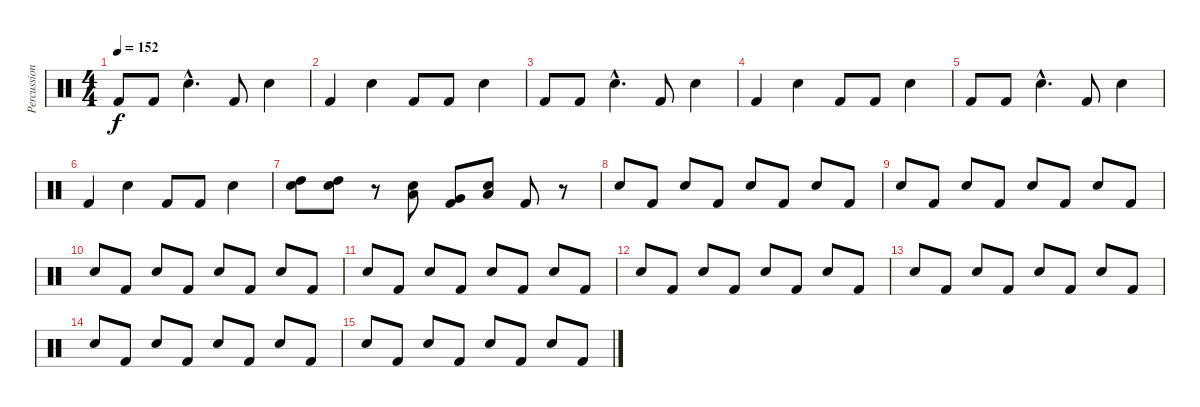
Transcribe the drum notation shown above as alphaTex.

\track ("Percussion" "Percussion") {instrument percussion}
\staff {score}
\articulation defaults
\ts (4 4)
\tempo 152
\clef neutral
\ks c "Kick (hit) 2".8{dy f} "Kick (hit) 2".8 "Snare (hit) 2"{hac}.4{d} "Kick (hit) 2".8 "Snare (hit) 2".4
|
"Kick (hit) 2".4 "Snare (hit) 2".4 "Kick (hit) 2".8 "Kick (hit) 2".8 "Snare (hit) 2".4 |
"Kick (hit) 2".8 "Kick (hit) 2".8 "Snare (hit) 2"{hac}.4{d} "Kick (hit) 2".8 "Snare (hit) 2".4 |
"Kick (hit) 2".4 "Snare (hit) 2".4 "Kick (hit) 2".8 "Kick (hit) 2".8 "Snare (hit) 2".4 |
"Kick (hit) 2".8 "Kick (hit) 2".8 "Snare (hit) 2"{hac}.4{d} "Kick (hit) 2".8 "Snare (hit) 2".4 |
"Kick (hit) 2".4 "Snare (hit) 2".4 "Kick (hit) 2".8 "Kick (hit) 2".8 "Snare (hit) 2".4 |
("Snare (hit) 2" "High Tom (hit)").8 ("Snare (hit) 2" "High Tom (hit)").8 r.8 ("Snare (hit) 2" "Low Tom (hit)").8 ("Kick (hit) 2" "Very Low Tom (hit)").8 ("Snare (hit) 2" "Low Tom (hit)").8 "Kick (hit) 2".8 r.8 |
"Snare (hit) 2".8 "Kick (hit) 2".8 "Snare (hit) 2".8 "Kick (hit) 2".8 "Snare (hit) 2".8 "Kick (hit) 2".8 "Snare (hit) 2".8 "Kick (hit) 2".8 |
"Snare (hit) 2".8 "Kick (hit) 2".8 "Snare (hit) 2".8 "Kick (hit) 2".8 "Snare (hit) 2".8 "Kick (hit) 2".8 "Snare (hit) 2".8 "Kick (hit) 2".8 |
"Snare (hit) 2".8 "Kick (hit) 2".8 "Snare (hit) 2".8 "Kick (hit) 2".8 "Snare (hit) 2".8 "Kick (hit) 2".8 "Snare (hit) 2".8 "Kick (hit) 2".8 |
"Snare (hit) 2".8 "Kick (hit) 2".8 "Snare (hit) 2".8 "Kick (hit) 2".8 "Snare (hit) 2".8 "Kick (hit) 2".8 "Snare (hit) 2".8 "Kick (hit) 2".8 |
"Snare (hit) 2".8 "Kick (hit) 2".8 "Snare (hit) 2".8 "Kick (hit) 2".8 "Snare (hit) 2".8 "Kick (hit) 2".8 "Snare (hit) 2".8 "Kick (hit) 2".8 |
"Snare (hit) 2".8 "Kick (hit) 2".8 "Snare (hit) 2".8 "Kick (hit) 2".8 "Snare (hit) 2".8 "Kick (hit) 2".8 "Snare (hit) 2".8 "Kick (hit) 2".8 |
"Snare (hit) 2".8 "Kick (hit) 2".8 "Snare (hit) 2".8 "Kick (hit) 2".8 "Snare (hit) 2".8 "Kick (hit) 2".8 "Snare (hit) 2".8 "Kick (hit) 2".8 |
"Snare (hit) 2".8 "Kick (hit) 2".8 "Snare (hit) 2".8 "Kick (hit) 2".8 "Snare (hit) 2".8 "Kick (hit) 2".8 "Snare (hit) 2".8 "Kick (hit) 2".8
